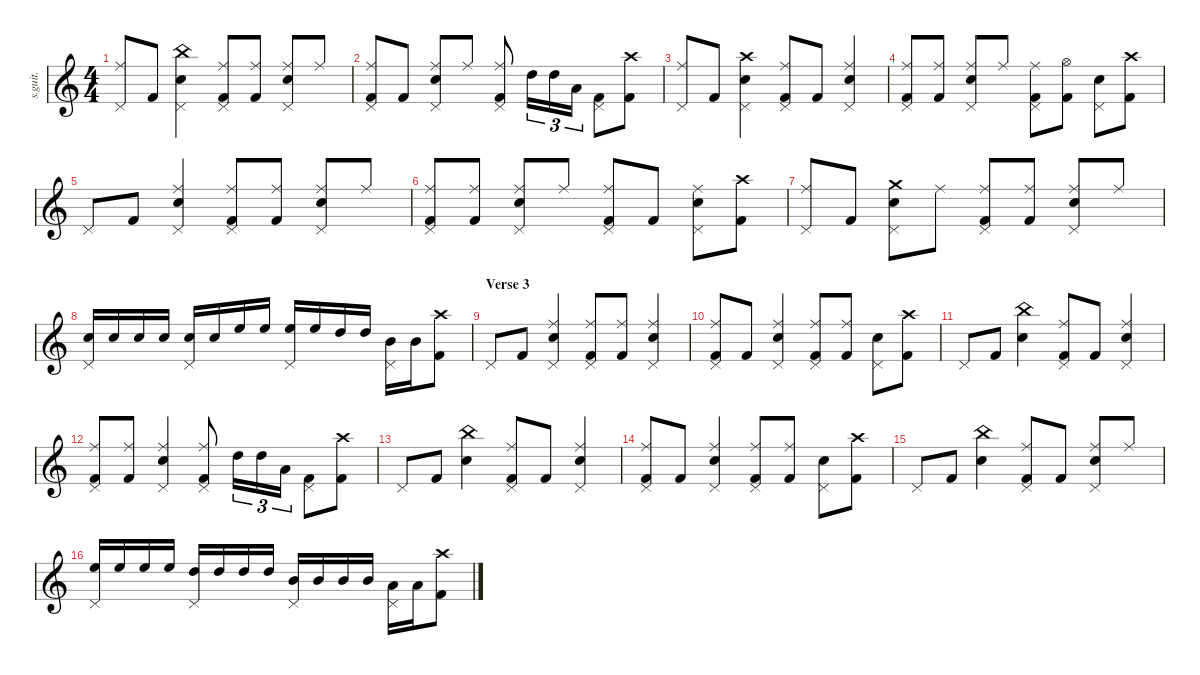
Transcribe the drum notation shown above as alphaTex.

\defaultSystemsLayout 4
\hideDynamics
\bracketExtendMode nobrackets
\track ("Nicko McBrain" "s.guit.") {instrument percussion}
\staff {score}
\articulation defaults
\ts (4 4)
\tempo (162 hide)
\clef g2
\ks c
("Pedal Hi-Hat (hit)" "Ride (middle)").8{dy mf} "Kick (hit) 2".8 ("Snare (hit) 2" "Pedal Hi-Hat (hit)" "China (hit)").4 ("Pedal Hi-Hat (hit)" "Kick (hit) 2" "Ride (middle)").8 ("Kick (hit) 2" "Ride (middle)").8 ("Snare (hit) 2" "Pedal Hi-Hat (hit)" "Ride (middle)").8 "Ride (middle)".8 |
("Pedal Hi-Hat (hit)" "Kick (hit) 2" "Ride (middle)").8 "Kick (hit) 2".8 ("Snare (hit) 2" "Pedal Hi-Hat (hit)" "Ride (middle)").8 "Ride (middle)".8 ("Ride (middle)" "Pedal Hi-Hat (hit)" "Kick (hit) 2").8 "High Tom (hit)".16{tu (3 2)} "High Tom (hit)".16{tu (3 2)} "Low Tom (hit)".16{tu (3 2)} ("Kick (hit) 2" "Pedal Hi-Hat (hit)").8 ("Kick (hit) 2" "Crash high (hit)").8 |
("Pedal Hi-Hat (hit)" "Ride (middle)").8 "Kick (hit) 2".8 ("Snare (hit) 2" "Pedal Hi-Hat (hit)" "Crash high (hit)").4 ("Pedal Hi-Hat (hit)" "Kick (hit) 2" "Ride (middle)").8 "Kick (hit) 2".8 ("Snare (hit) 2" "Pedal Hi-Hat (hit)" "Ride (middle)").4 |
("Pedal Hi-Hat (hit)" "Kick (hit) 2" "Ride (middle)").8 ("Kick (hit) 2" "Ride (middle)").8 ("Snare (hit) 2" "Pedal Hi-Hat (hit)" "Ride (middle)").8 "Ride (middle)".8 ("Pedal Hi-Hat (hit)" "Kick (hit) 2" "Ride (middle)").8 ("Kick (hit) 2" "Hi-Hat (open)").8 ("Snare (hit) 2" "Pedal Hi-Hat (hit)").8 ("Crash high (hit)" "Kick (hit) 2").8 |
"Pedal Hi-Hat (hit)".8 "Kick (hit) 2".8 ("Snare (hit) 2" "Pedal Hi-Hat (hit)" "Ride (middle)").4 ("Pedal Hi-Hat (hit)" "Kick (hit) 2" "Ride (middle)").8 ("Kick (hit) 2" "Ride (middle)").8 ("Snare (hit) 2" "Pedal Hi-Hat (hit)" "Ride (middle)").8 "Ride (middle)".8 |
("Pedal Hi-Hat (hit)" "Kick (hit) 2" "Ride (middle)").8 ("Kick (hit) 2" "Ride (middle)").8 ("Snare (hit) 2" "Pedal Hi-Hat (hit)" "Ride (middle)").8 "Ride (middle)".8 ("Pedal Hi-Hat (hit)" "Kick (hit) 2" "Ride (middle)").8 "Kick (hit) 2".8 ("Snare (hit) 2" "Pedal Hi-Hat (hit)" "Ride (middle)").8 ("Crash high (hit)" "Kick (hit) 2").8 |
("Pedal Hi-Hat (hit)" "Ride (middle)").8 "Kick (hit) 2".8 ("Snare (hit) 2" "Pedal Hi-Hat (hit)" "Crash medium (hit)").8 "Ride (middle)".8 ("Pedal Hi-Hat (hit)" "Kick (hit) 2" "Ride (middle)").8 ("Kick (hit) 2" "Ride (middle)").8 ("Snare (hit) 2" "Pedal Hi-Hat (hit)" "Ride (middle)").8 "Ride (middle)".8 |
("Snare (hit) 2" "Pedal Hi-Hat (hit)").16 "Snare (hit) 2".16 "Snare (hit) 2".16 "Snare (hit) 2".16 ("Snare (hit) 2" "Pedal Hi-Hat (hit)").16 "Snare (hit) 2".16 "High Floor Tom (hit)".16 "High Floor Tom (hit)".16 ("High Floor Tom (hit)" "Pedal Hi-Hat (hit)").16 "High Floor Tom (hit)".16 "High Tom (hit)".16 "High Tom (hit)".16 ("Mid Tom (hit)" "Pedal Hi-Hat (hit)").16 "Mid Tom (hit)".16 ("Kick (hit) 2" "Crash high (hit)").8 |
\section ("" "Verse 3")
"Pedal Hi-Hat (hit)".8 "Kick (hit) 2".8 ("Snare (hit) 2" "Pedal Hi-Hat (hit)" "Ride (middle)").4 ("Pedal Hi-Hat (hit)" "Kick (hit) 2" "Ride (middle)").8 ("Kick (hit) 2" "Ride (middle)").8 ("Snare (hit) 2" "Pedal Hi-Hat (hit)" "Ride (middle)").4 |
("Kick (hit) 2" "Ride (middle)" "Pedal Hi-Hat (hit)").8 "Kick (hit) 2".8 ("Snare (hit) 2" "Pedal Hi-Hat (hit)" "Ride (middle)").4 ("Pedal Hi-Hat (hit)" "Kick (hit) 2" "Ride (middle)").8 ("Kick (hit) 2" "Ride (middle)").8 ("Snare (hit) 2" "Pedal Hi-Hat (hit)").8 ("Crash high (hit)" "Kick (hit) 2").8 |
"Pedal Hi-Hat (hit)".8 "Kick (hit) 2".8 ("Snare (hit) 2" "China (hit)").4 ("Kick (hit) 2" "Pedal Hi-Hat (hit)" "Ride (middle)").8 "Kick (hit) 2".8 ("Pedal Hi-Hat (hit)" "Snare (hit) 2" "Ride (middle)").4 |
("Pedal Hi-Hat (hit)" "Kick (hit) 2" "Ride (middle)").8 ("Kick (hit) 2" "Ride (middle)").8 ("Snare (hit) 2" "Pedal Hi-Hat (hit)" "Ride (middle)").4 ("Ride (middle)" "Pedal Hi-Hat (hit)" "Kick (hit) 2").8 "High Tom (hit)".16{tu (3 2)} "High Tom (hit)".16{tu (3 2)} "Low Tom (hit)".16{tu (3 2)} ("Kick (hit) 2" "Pedal Hi-Hat (hit)").8 ("Kick (hit) 2" "Crash high (hit)").8 |
"Pedal Hi-Hat (hit)".8 "Kick (hit) 2".8 ("Snare (hit) 2" "China (hit)").4 ("Kick (hit) 2" "Pedal Hi-Hat (hit)" "Ride (middle)").8 "Kick (hit) 2".8 ("Pedal Hi-Hat (hit)" "Snare (hit) 2" "Ride (middle)").4 |
("Kick (hit) 2" "Ride (middle)" "Pedal Hi-Hat (hit)").8 "Kick (hit) 2".8 ("Snare (hit) 2" "Pedal Hi-Hat (hit)" "Ride (middle)").4 ("Pedal Hi-Hat (hit)" "Kick (hit) 2" "Ride (middle)").8 ("Kick (hit) 2" "Ride (middle)").8 ("Snare (hit) 2" "Pedal Hi-Hat (hit)").8 ("Crash high (hit)" "Kick (hit) 2").8 |
"Pedal Hi-Hat (hit)".8 "Kick (hit) 2".8 ("Snare (hit) 2" "China (hit)").4 ("Kick (hit) 2" "Pedal Hi-Hat (hit)" "Ride (middle)").8 "Kick (hit) 2".8 ("Snare (hit) 2" "Pedal Hi-Hat (hit)" "Ride (middle)").8 "Ride (middle)".8 |
("Pedal Hi-Hat (hit)" "High Floor Tom (hit)").16 "High Floor Tom (hit)".16 "High Floor Tom (hit)".16 "High Floor Tom (hit)".16 ("Pedal Hi-Hat (hit)" "High Tom (hit)").16 "High Tom (hit)".16 "High Tom (hit)".16 "High Tom (hit)".16 ("Pedal Hi-Hat (hit)" "Mid Tom (hit)").16 "Mid Tom (hit)".16 "Mid Tom (hit)".16 "Mid Tom (hit)".16 ("Pedal Hi-Hat (hit)" "Low Tom (hit)").16 "Low Tom (hit)".16 ("Kick (hit) 2" "Crash high (hit)").8
